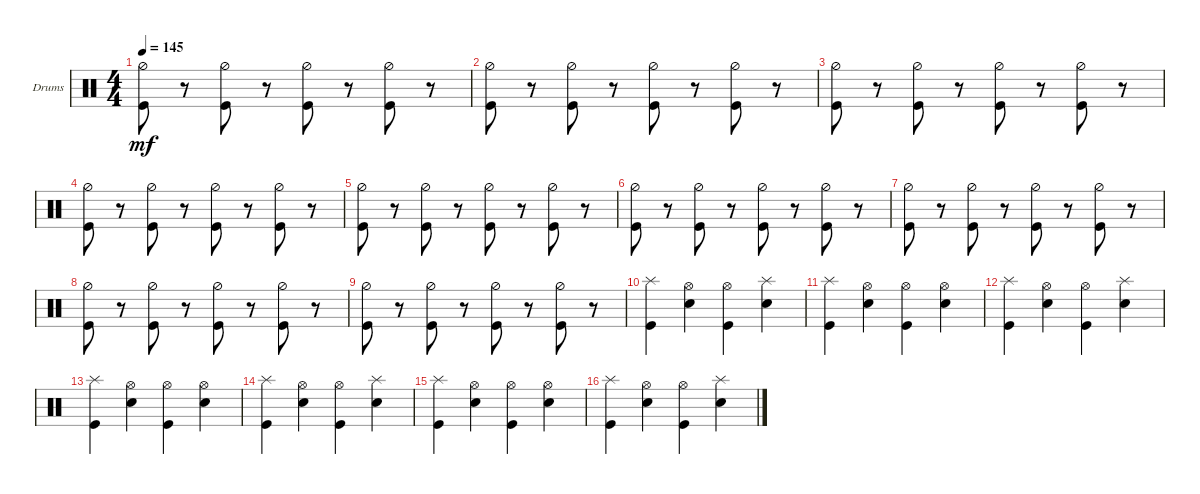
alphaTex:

\bracketExtendMode groupsimilarinstruments
\firstSystemTrackNameOrientation horizontal
\otherSystemsTrackNameOrientation horizontal
\track ("Drums" "Drums") {instrument percussion}
\staff {score}
\articulation defaults
\ts (4 4)
\tempo 145
\clef neutral
\ks c
("Kick (hit)" "Hi-Hat (half)").8{dy mf} r.8 ("Hi-Hat (half)" "Kick (hit)").8 r.8 ("Hi-Hat (half)" "Kick (hit)").8 r.8 ("Kick (hit)" "Hi-Hat (half)").8 r.8 |
("Kick (hit)" "Hi-Hat (half)").8 r.8 ("Hi-Hat (half)" "Kick (hit)").8 r.8 ("Hi-Hat (half)" "Kick (hit)").8 r.8 ("Kick (hit)" "Hi-Hat (half)").8 r.8 |
("Kick (hit)" "Hi-Hat (half)").8 r.8 ("Hi-Hat (half)" "Kick (hit)").8 r.8 ("Hi-Hat (half)" "Kick (hit)").8 r.8 ("Kick (hit)" "Hi-Hat (half)").8 r.8 |
("Kick (hit)" "Hi-Hat (half)").8 r.8 ("Hi-Hat (half)" "Kick (hit)").8 r.8 ("Hi-Hat (half)" "Kick (hit)").8 r.8 ("Kick (hit)" "Hi-Hat (half)").8 r.8 |
("Kick (hit)" "Hi-Hat (half)").8 r.8 ("Hi-Hat (half)" "Kick (hit)").8 r.8 ("Hi-Hat (half)" "Kick (hit)").8 r.8 ("Kick (hit)" "Hi-Hat (half)").8 r.8 |
("Kick (hit)" "Hi-Hat (half)").8 r.8 ("Hi-Hat (half)" "Kick (hit)").8 r.8 ("Hi-Hat (half)" "Kick (hit)").8 r.8 ("Kick (hit)" "Hi-Hat (half)").8 r.8 |
("Kick (hit)" "Hi-Hat (half)").8 r.8 ("Hi-Hat (half)" "Kick (hit)").8 r.8 ("Hi-Hat (half)" "Kick (hit)").8 r.8 ("Kick (hit)" "Hi-Hat (half)").8 r.8 |
("Kick (hit)" "Hi-Hat (half)").8 r.8 ("Hi-Hat (half)" "Kick (hit)").8 r.8 ("Hi-Hat (half)" "Kick (hit)").8 r.8 ("Kick (hit)" "Hi-Hat (half)").8 r.8 |
("Kick (hit)" "Hi-Hat (half)").8 r.8 ("Hi-Hat (half)" "Kick (hit)").8 r.8 ("Hi-Hat (half)" "Kick (hit)").8 r.8 ("Kick (hit)" "Hi-Hat (half)").8 r.8 |
("Kick (hit)" "Splash (hit)").4 ("Snare (hit) 2" "Hi-Hat (open)").4 ("Kick (hit)" "Hi-Hat (open)").4 ("Snare (hit) 2" "Splash (hit)").4 |
("Kick (hit)" "Splash (hit)").4 ("Snare (hit) 2" "Hi-Hat (open)").4 ("Kick (hit)" "Hi-Hat (open)").4 ("Snare (hit) 2" "Hi-Hat (open)").4 |
("Kick (hit)" "Splash (hit)").4 ("Snare (hit) 2" "Hi-Hat (open)").4 ("Kick (hit)" "Hi-Hat (open)").4 ("Snare (hit) 2" "Splash (hit)").4 |
("Kick (hit)" "Splash (hit)").4 ("Snare (hit) 2" "Hi-Hat (open)").4 ("Kick (hit)" "Hi-Hat (open)").4 ("Snare (hit) 2" "Hi-Hat (open)").4 |
("Kick (hit)" "Splash (hit)").4 ("Snare (hit) 2" "Hi-Hat (open)").4 ("Kick (hit)" "Hi-Hat (open)").4 ("Snare (hit) 2" "Splash (hit)").4 |
("Kick (hit)" "Splash (hit)").4 ("Snare (hit) 2" "Hi-Hat (open)").4 ("Kick (hit)" "Hi-Hat (open)").4 ("Snare (hit) 2" "Hi-Hat (open)").4 |
("Kick (hit)" "Splash (hit)").4 ("Snare (hit) 2" "Hi-Hat (open)").4 ("Kick (hit)" "Hi-Hat (open)").4 ("Snare (hit) 2" "Splash (hit)").4
